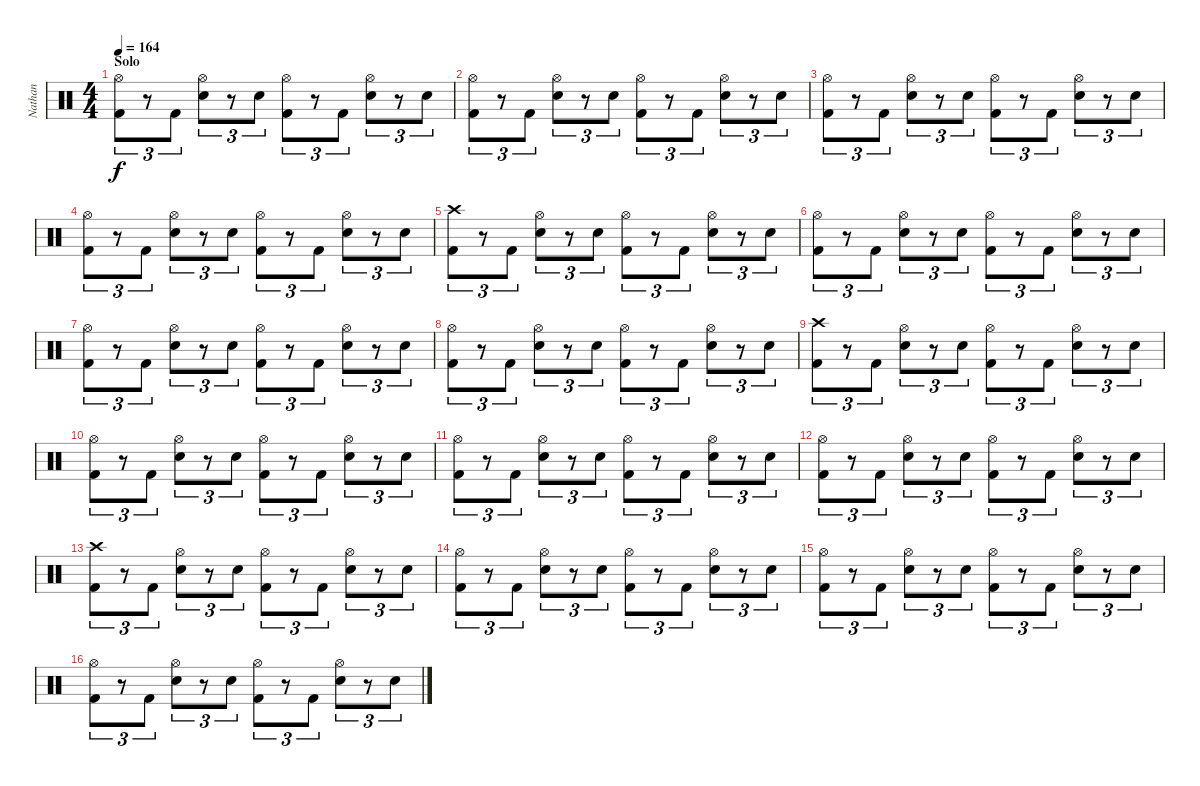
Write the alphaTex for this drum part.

\track ("Nathan" "Nathan") {instrument percussion}
\staff {score}
\articulation defaults
\ts (4 4)
\section ("" "Solo")
\tempo 164
\clef neutral
\ks c
("Hi-Hat (open)" "Kick (hit) 2").8{tu (3 2) dy f} r.8{tu (3 2)} "Kick (hit) 2".8{tu (3 2)} ("Hi-Hat (open)" "Snare (hit) 2").8{tu (3 2)} r.8{tu (3 2)} "Snare (hit) 2".8{tu (3 2)} ("Hi-Hat (open)" "Kick (hit) 2").8{tu (3 2)} r.8{tu (3 2)} "Kick (hit) 2".8{tu (3 2)} ("Hi-Hat (open)" "Snare (hit) 2").8{tu (3 2)} r.8{tu (3 2)} "Snare (hit) 2".8{tu (3 2)} |
("Hi-Hat (open)" "Kick (hit) 2").8{tu (3 2)} r.8{tu (3 2)} "Kick (hit) 2".8{tu (3 2)} ("Hi-Hat (open)" "Snare (hit) 2").8{tu (3 2)} r.8{tu (3 2)} "Snare (hit) 2".8{tu (3 2)} ("Hi-Hat (open)" "Kick (hit) 2").8{tu (3 2)} r.8{tu (3 2)} "Kick (hit) 2".8{tu (3 2)} ("Hi-Hat (open)" "Snare (hit) 2").8{tu (3 2)} r.8{tu (3 2)} "Snare (hit) 2".8{tu (3 2)} |
("Hi-Hat (open)" "Kick (hit) 2").8{tu (3 2)} r.8{tu (3 2)} "Kick (hit) 2".8{tu (3 2)} ("Hi-Hat (open)" "Snare (hit) 2").8{tu (3 2)} r.8{tu (3 2)} "Snare (hit) 2".8{tu (3 2)} ("Hi-Hat (open)" "Kick (hit) 2").8{tu (3 2)} r.8{tu (3 2)} "Kick (hit) 2".8{tu (3 2)} ("Hi-Hat (open)" "Snare (hit) 2").8{tu (3 2)} r.8{tu (3 2)} "Snare (hit) 2".8{tu (3 2)} |
("Hi-Hat (open)" "Kick (hit) 2").8{tu (3 2)} r.8{tu (3 2)} "Kick (hit) 2".8{tu (3 2)} ("Hi-Hat (open)" "Snare (hit) 2").8{tu (3 2)} r.8{tu (3 2)} "Snare (hit) 2".8{tu (3 2)} ("Hi-Hat (open)" "Kick (hit) 2").8{tu (3 2)} r.8{tu (3 2)} "Kick (hit) 2".8{tu (3 2)} ("Hi-Hat (open)" "Snare (hit) 2").8{tu (3 2)} r.8{tu (3 2)} "Snare (hit) 2".8{tu (3 2)} |
("Crash high (hit)" "Kick (hit) 2").8{tu (3 2)} r.8{tu (3 2)} "Kick (hit) 2".8{tu (3 2)} ("Hi-Hat (open)" "Snare (hit) 2").8{tu (3 2)} r.8{tu (3 2)} "Snare (hit) 2".8{tu (3 2)} ("Hi-Hat (open)" "Kick (hit) 2").8{tu (3 2)} r.8{tu (3 2)} "Kick (hit) 2".8{tu (3 2)} ("Hi-Hat (open)" "Snare (hit) 2").8{tu (3 2)} r.8{tu (3 2)} "Snare (hit) 2".8{tu (3 2)} |
("Hi-Hat (open)" "Kick (hit) 2").8{tu (3 2)} r.8{tu (3 2)} "Kick (hit) 2".8{tu (3 2)} ("Hi-Hat (open)" "Snare (hit) 2").8{tu (3 2)} r.8{tu (3 2)} "Snare (hit) 2".8{tu (3 2)} ("Hi-Hat (open)" "Kick (hit) 2").8{tu (3 2)} r.8{tu (3 2)} "Kick (hit) 2".8{tu (3 2)} ("Hi-Hat (open)" "Snare (hit) 2").8{tu (3 2)} r.8{tu (3 2)} "Snare (hit) 2".8{tu (3 2)} |
("Hi-Hat (open)" "Kick (hit) 2").8{tu (3 2)} r.8{tu (3 2)} "Kick (hit) 2".8{tu (3 2)} ("Hi-Hat (open)" "Snare (hit) 2").8{tu (3 2)} r.8{tu (3 2)} "Snare (hit) 2".8{tu (3 2)} ("Hi-Hat (open)" "Kick (hit) 2").8{tu (3 2)} r.8{tu (3 2)} "Kick (hit) 2".8{tu (3 2)} ("Hi-Hat (open)" "Snare (hit) 2").8{tu (3 2)} r.8{tu (3 2)} "Snare (hit) 2".8{tu (3 2)} |
("Hi-Hat (open)" "Kick (hit) 2").8{tu (3 2)} r.8{tu (3 2)} "Kick (hit) 2".8{tu (3 2)} ("Hi-Hat (open)" "Snare (hit) 2").8{tu (3 2)} r.8{tu (3 2)} "Snare (hit) 2".8{tu (3 2)} ("Hi-Hat (open)" "Kick (hit) 2").8{tu (3 2)} r.8{tu (3 2)} "Kick (hit) 2".8{tu (3 2)} ("Hi-Hat (open)" "Snare (hit) 2").8{tu (3 2)} r.8{tu (3 2)} "Snare (hit) 2".8{tu (3 2)} |
("Crash high (hit)" "Kick (hit) 2").8{tu (3 2)} r.8{tu (3 2)} "Kick (hit) 2".8{tu (3 2)} ("Hi-Hat (open)" "Snare (hit) 2").8{tu (3 2)} r.8{tu (3 2)} "Snare (hit) 2".8{tu (3 2)} ("Hi-Hat (open)" "Kick (hit) 2").8{tu (3 2)} r.8{tu (3 2)} "Kick (hit) 2".8{tu (3 2)} ("Hi-Hat (open)" "Snare (hit) 2").8{tu (3 2)} r.8{tu (3 2)} "Snare (hit) 2".8{tu (3 2)} |
("Hi-Hat (open)" "Kick (hit) 2").8{tu (3 2)} r.8{tu (3 2)} "Kick (hit) 2".8{tu (3 2)} ("Hi-Hat (open)" "Snare (hit) 2").8{tu (3 2)} r.8{tu (3 2)} "Snare (hit) 2".8{tu (3 2)} ("Hi-Hat (open)" "Kick (hit) 2").8{tu (3 2)} r.8{tu (3 2)} "Kick (hit) 2".8{tu (3 2)} ("Hi-Hat (open)" "Snare (hit) 2").8{tu (3 2)} r.8{tu (3 2)} "Snare (hit) 2".8{tu (3 2)} |
("Hi-Hat (open)" "Kick (hit) 2").8{tu (3 2)} r.8{tu (3 2)} "Kick (hit) 2".8{tu (3 2)} ("Hi-Hat (open)" "Snare (hit) 2").8{tu (3 2)} r.8{tu (3 2)} "Snare (hit) 2".8{tu (3 2)} ("Hi-Hat (open)" "Kick (hit) 2").8{tu (3 2)} r.8{tu (3 2)} "Kick (hit) 2".8{tu (3 2)} ("Hi-Hat (open)" "Snare (hit) 2").8{tu (3 2)} r.8{tu (3 2)} "Snare (hit) 2".8{tu (3 2)} |
("Hi-Hat (open)" "Kick (hit) 2").8{tu (3 2)} r.8{tu (3 2)} "Kick (hit) 2".8{tu (3 2)} ("Hi-Hat (open)" "Snare (hit) 2").8{tu (3 2)} r.8{tu (3 2)} "Snare (hit) 2".8{tu (3 2)} ("Hi-Hat (open)" "Kick (hit) 2").8{tu (3 2)} r.8{tu (3 2)} "Kick (hit) 2".8{tu (3 2)} ("Hi-Hat (open)" "Snare (hit) 2").8{tu (3 2)} r.8{tu (3 2)} "Snare (hit) 2".8{tu (3 2)} |
("Crash high (hit)" "Kick (hit) 2").8{tu (3 2)} r.8{tu (3 2)} "Kick (hit) 2".8{tu (3 2)} ("Hi-Hat (open)" "Snare (hit) 2").8{tu (3 2)} r.8{tu (3 2)} "Snare (hit) 2".8{tu (3 2)} ("Hi-Hat (open)" "Kick (hit) 2").8{tu (3 2)} r.8{tu (3 2)} "Kick (hit) 2".8{tu (3 2)} ("Hi-Hat (open)" "Snare (hit) 2").8{tu (3 2)} r.8{tu (3 2)} "Snare (hit) 2".8{tu (3 2)} |
("Hi-Hat (open)" "Kick (hit) 2").8{tu (3 2)} r.8{tu (3 2)} "Kick (hit) 2".8{tu (3 2)} ("Hi-Hat (open)" "Snare (hit) 2").8{tu (3 2)} r.8{tu (3 2)} "Snare (hit) 2".8{tu (3 2)} ("Hi-Hat (open)" "Kick (hit) 2").8{tu (3 2)} r.8{tu (3 2)} "Kick (hit) 2".8{tu (3 2)} ("Hi-Hat (open)" "Snare (hit) 2").8{tu (3 2)} r.8{tu (3 2)} "Snare (hit) 2".8{tu (3 2)} |
("Hi-Hat (open)" "Kick (hit) 2").8{tu (3 2)} r.8{tu (3 2)} "Kick (hit) 2".8{tu (3 2)} ("Hi-Hat (open)" "Snare (hit) 2").8{tu (3 2)} r.8{tu (3 2)} "Snare (hit) 2".8{tu (3 2)} ("Hi-Hat (open)" "Kick (hit) 2").8{tu (3 2)} r.8{tu (3 2)} "Kick (hit) 2".8{tu (3 2)} ("Hi-Hat (open)" "Snare (hit) 2").8{tu (3 2)} r.8{tu (3 2)} "Snare (hit) 2".8{tu (3 2)} |
("Hi-Hat (open)" "Kick (hit) 2").8{tu (3 2)} r.8{tu (3 2)} "Kick (hit) 2".8{tu (3 2)} ("Hi-Hat (open)" "Snare (hit) 2").8{tu (3 2)} r.8{tu (3 2)} "Snare (hit) 2".8{tu (3 2)} ("Hi-Hat (open)" "Kick (hit) 2").8{tu (3 2)} r.8{tu (3 2)} "Kick (hit) 2".8{tu (3 2)} ("Hi-Hat (open)" "Snare (hit) 2").8{tu (3 2)} r.8{tu (3 2)} "Snare (hit) 2".8{tu (3 2)}
